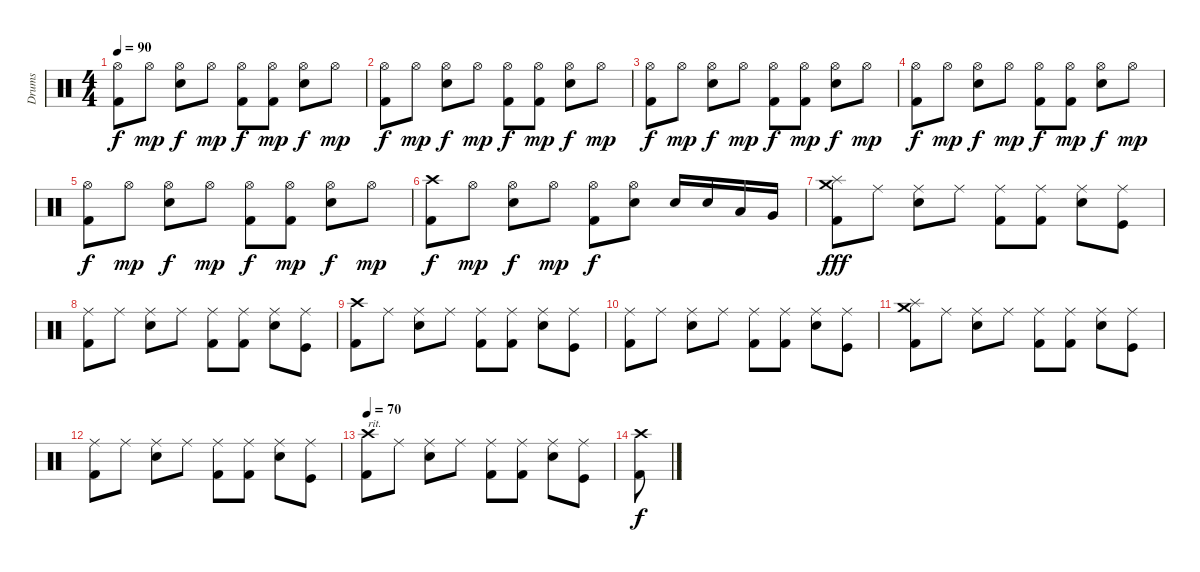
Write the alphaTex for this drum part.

\track ("Drums" "Drums") {instrument percussion}
\staff {score}
\articulation defaults
\ts (4 4)
\tempo 90
\clef neutral
\ks c
("Hi-Hat (open)" "Kick (hit) 2").8{dy f} "Hi-Hat (open)".8{dy mp} ("Hi-Hat (open)" "Electric Snare (hit)").8{dy f} "Hi-Hat (open)".8{dy mp} ("Hi-Hat (open)" "Kick (hit) 2").8{dy f} ("Hi-Hat (open)" "Kick (hit) 2").8{dy mp} ("Hi-Hat (open)" "Electric Snare (hit)").8{dy f} "Hi-Hat (open)".8{dy mp} |
("Hi-Hat (open)" "Kick (hit) 2").8{dy f} "Hi-Hat (open)".8{dy mp} ("Hi-Hat (open)" "Electric Snare (hit)").8{dy f} "Hi-Hat (open)".8{dy mp} ("Hi-Hat (open)" "Kick (hit) 2").8{dy f} ("Hi-Hat (open)" "Kick (hit) 2").8{dy mp} ("Hi-Hat (open)" "Electric Snare (hit)").8{dy f} "Hi-Hat (open)".8{dy mp} |
("Hi-Hat (open)" "Kick (hit) 2").8{dy f} "Hi-Hat (open)".8{dy mp} ("Hi-Hat (open)" "Electric Snare (hit)").8{dy f} "Hi-Hat (open)".8{dy mp} ("Hi-Hat (open)" "Kick (hit) 2").8{dy f} ("Hi-Hat (open)" "Kick (hit) 2").8{dy mp} ("Hi-Hat (open)" "Electric Snare (hit)").8{dy f} "Hi-Hat (open)".8{dy mp} |
("Hi-Hat (open)" "Kick (hit) 2").8{dy f} "Hi-Hat (open)".8{dy mp} ("Hi-Hat (open)" "Electric Snare (hit)").8{dy f} "Hi-Hat (open)".8{dy mp} ("Hi-Hat (open)" "Kick (hit) 2").8{dy f} ("Hi-Hat (open)" "Kick (hit) 2").8{dy mp} ("Hi-Hat (open)" "Electric Snare (hit)").8{dy f} "Hi-Hat (open)".8{dy mp} |
("Hi-Hat (open)" "Kick (hit) 2").8{dy f} "Hi-Hat (open)".8{dy mp} ("Hi-Hat (open)" "Electric Snare (hit)").8{dy f} "Hi-Hat (open)".8{dy mp} ("Hi-Hat (open)" "Kick (hit) 2").8{dy f} ("Hi-Hat (open)" "Kick (hit) 2").8{dy mp} ("Hi-Hat (open)" "Electric Snare (hit)").8{dy f} "Hi-Hat (open)".8{dy mp} |
("Crash high (hit)" "Kick (hit) 2").8{dy f} "Hi-Hat (open)".8{dy mp} ("Hi-Hat (open)" "Snare (hit) 2").8{dy f} "Hi-Hat (open)".8{dy mp} ("Hi-Hat (open)" "Kick (hit) 2").8{dy f} ("Hi-Hat (open)" "Snare (hit) 2").8 "Snare (hit) 2".16 "Snare (hit) 2".16 "Low Tom (hit)".16 "Very Low Tom (hit)".16 |
("Splash (hit)" "Crash medium (hit)" "Kick (hit) 2").8{dy fff} "Ride (middle)".8 ("Ride (middle)" "Electric Snare (hit)").8 "Ride (middle)".8 ("Ride (middle)" "Kick (hit) 2").8 ("Ride (middle)" "Kick (hit) 2").8 ("Ride (middle)" "Electric Snare (hit)").8 ("Ride (middle)" "Kick (hit)").8 |
("Ride (middle)" "Kick (hit) 2").8 "Ride (middle)".8 ("Ride (middle)" "Electric Snare (hit)").8 "Ride (middle)".8 ("Ride (middle)" "Kick (hit) 2").8 ("Ride (middle)" "Kick (hit) 2").8 ("Ride (middle)" "Electric Snare (hit)").8 ("Ride (middle)" "Kick (hit)").8 |
("Crash high (hit)" "Kick (hit) 2").8 "Ride (middle)".8 ("Ride (middle)" "Electric Snare (hit)").8 "Ride (middle)".8 ("Ride (middle)" "Kick (hit) 2").8 ("Ride (middle)" "Kick (hit) 2").8 ("Ride (middle)" "Electric Snare (hit)").8 ("Ride (middle)" "Kick (hit)").8 |
("Ride (middle)" "Kick (hit) 2").8 "Ride (middle)".8 ("Ride (middle)" "Electric Snare (hit)").8 "Ride (middle)".8 ("Ride (middle)" "Kick (hit) 2").8 ("Ride (middle)" "Kick (hit) 2").8 ("Ride (middle)" "Electric Snare (hit)").8 ("Ride (middle)" "Kick (hit)").8 |
("Splash (hit)" "Crash medium (hit)" "Kick (hit) 2").8 "Ride (middle)".8 ("Ride (middle)" "Electric Snare (hit)").8 "Ride (middle)".8 ("Ride (middle)" "Kick (hit) 2").8 ("Ride (middle)" "Kick (hit) 2").8 ("Ride (middle)" "Electric Snare (hit)").8 ("Ride (middle)" "Kick (hit)").8 |
("Ride (middle)" "Kick (hit) 2").8 "Ride (middle)".8 ("Ride (middle)" "Electric Snare (hit)").8 "Ride (middle)".8 ("Ride (middle)" "Kick (hit) 2").8 ("Ride (middle)" "Kick (hit) 2").8 ("Ride (middle)" "Electric Snare (hit)").8 ("Ride (middle)" "Kick (hit)").8 |
\tempo 70
("Crash high (hit)" "Kick (hit) 2").8{txt "rit."} "Ride (middle)".8 ("Ride (middle)" "Electric Snare (hit)").8 "Ride (middle)".8 ("Ride (middle)" "Kick (hit) 2").8 ("Ride (middle)" "Kick (hit) 2").8 ("Ride (middle)" "Electric Snare (hit)").8 ("Ride (middle)" "Kick (hit)").8 |
("Crash high (hit)" "Kick (hit) 2").8{dy f}
